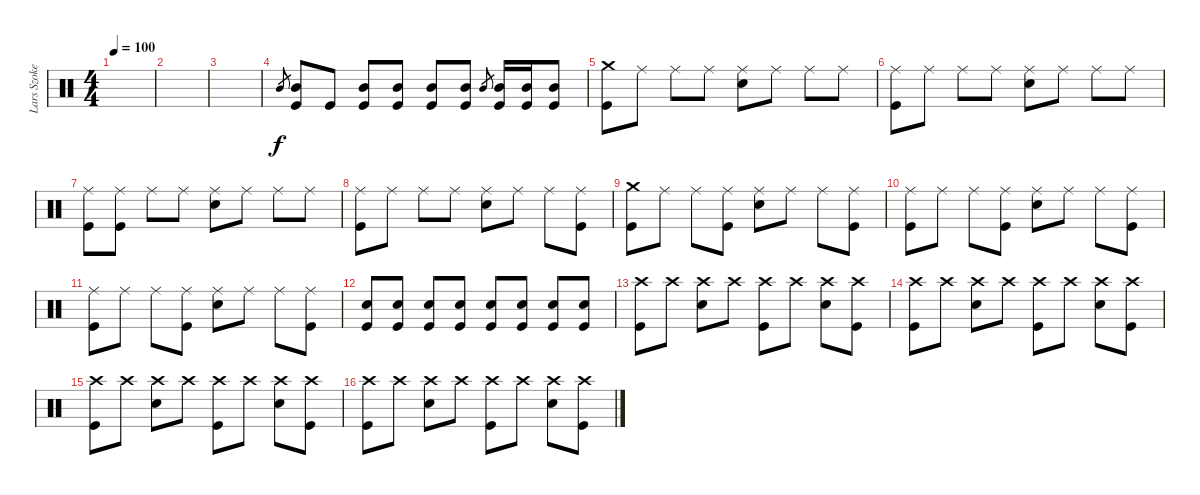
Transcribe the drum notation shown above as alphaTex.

\track ("Lars Szoke" "Lars Szoke") {instrument percussion}
\staff {score}
\articulation defaults
\ts (4 4)
\tempo 100
\clef neutral
\ks c
|
|
|
"Mid Tom (hit)".8{gr} ("Mid Tom (hit)" "Kick (hit)").8 "Kick (hit)".8 ("Mid Tom (hit)" "Kick (hit)").8 ("Mid Tom (hit)" "Kick (hit)").8 ("Mid Tom (hit)" "Kick (hit)").8 ("Mid Tom (hit)" "Kick (hit)").8 "Mid Tom (hit)".8{gr} ("Mid Tom (hit)" "Kick (hit)").16 ("Mid Tom (hit)" "Kick (hit)").16 ("Mid Tom (hit)" "Kick (hit)").8 |
("Crash medium (hit)" "Kick (hit)").8 "Ride (middle)".8 "Ride (middle)".8 "Ride (middle)".8 ("Ride (middle)" "Electric Snare (hit)").8 "Ride (middle)".8 "Ride (middle)".8 "Ride (middle)".8 |
("Ride (middle)" "Kick (hit)").8 "Ride (middle)".8 "Ride (middle)".8 "Ride (middle)".8 ("Ride (middle)" "Electric Snare (hit)").8 "Ride (middle)".8 "Ride (middle)".8 "Ride (middle)".8 |
("Ride (middle)" "Kick (hit)").8 ("Ride (middle)" "Kick (hit)").8 "Ride (middle)".8 "Ride (middle)".8 ("Ride (middle)" "Electric Snare (hit)").8 "Ride (middle)".8 "Ride (middle)".8 "Ride (middle)".8 |
("Ride (middle)" "Kick (hit)").8 "Ride (middle)".8 "Ride (middle)".8 "Ride (middle)".8 ("Ride (middle)" "Electric Snare (hit)").8 "Ride (middle)".8 "Ride (middle)".8 ("Ride (middle)" "Kick (hit)").8 |
("Crash medium (hit)" "Kick (hit)").8 "Ride (middle)".8 "Ride (middle)".8 ("Ride (middle)" "Kick (hit)").8 ("Ride (middle)" "Electric Snare (hit)").8 "Ride (middle)".8 "Ride (middle)".8 ("Ride (middle)" "Kick (hit)").8 |
("Ride (middle)" "Kick (hit)").8 "Ride (middle)".8 "Ride (middle)".8 ("Ride (middle)" "Kick (hit)").8 ("Ride (middle)" "Electric Snare (hit)").8 "Ride (middle)".8 "Ride (middle)".8 ("Ride (middle)" "Kick (hit)").8 |
("Ride (middle)" "Kick (hit)").8 "Ride (middle)".8 "Ride (middle)".8 ("Ride (middle)" "Kick (hit)").8 ("Ride (middle)" "Electric Snare (hit)").8 "Ride (middle)".8 "Ride (middle)".8 ("Ride (middle)" "Kick (hit)").8 |
("Electric Snare (hit)" "Kick (hit)").8 ("Electric Snare (hit)" "Kick (hit)").8 ("Electric Snare (hit)" "Kick (hit)").8 ("Electric Snare (hit)" "Kick (hit)").8 ("Electric Snare (hit)" "Kick (hit)").8 ("Electric Snare (hit)" "Kick (hit)").8 ("Electric Snare (hit)" "Kick (hit)").8 ("Electric Snare (hit)" "Kick (hit)").8 |
("Crash high (hit)" "Kick (hit)").8 "Crash high (hit)".8 ("Crash high (hit)" "Electric Snare (hit)").8 "Crash high (hit)".8 ("Crash high (hit)" "Kick (hit)").8 "Crash high (hit)".8 ("Crash high (hit)" "Electric Snare (hit)").8 ("Crash high (hit)" "Kick (hit)").8 |
("Crash high (hit)" "Kick (hit)").8 "Crash high (hit)".8 ("Crash high (hit)" "Electric Snare (hit)").8 "Crash high (hit)".8 ("Crash high (hit)" "Kick (hit)").8 "Crash high (hit)".8 ("Crash high (hit)" "Electric Snare (hit)").8 ("Crash high (hit)" "Kick (hit)").8 |
("Crash high (hit)" "Kick (hit)").8 "Crash high (hit)".8 ("Crash high (hit)" "Electric Snare (hit)").8 "Crash high (hit)".8 ("Crash high (hit)" "Kick (hit)").8 "Crash high (hit)".8 ("Crash high (hit)" "Electric Snare (hit)").8 ("Crash high (hit)" "Kick (hit)").8 |
("Crash high (hit)" "Kick (hit)").8 "Crash high (hit)".8 ("Crash high (hit)" "Electric Snare (hit)").8 "Crash high (hit)".8 ("Crash high (hit)" "Kick (hit)").8 "Crash high (hit)".8 ("Crash high (hit)" "Electric Snare (hit)").8 ("Crash high (hit)" "Kick (hit)").8
